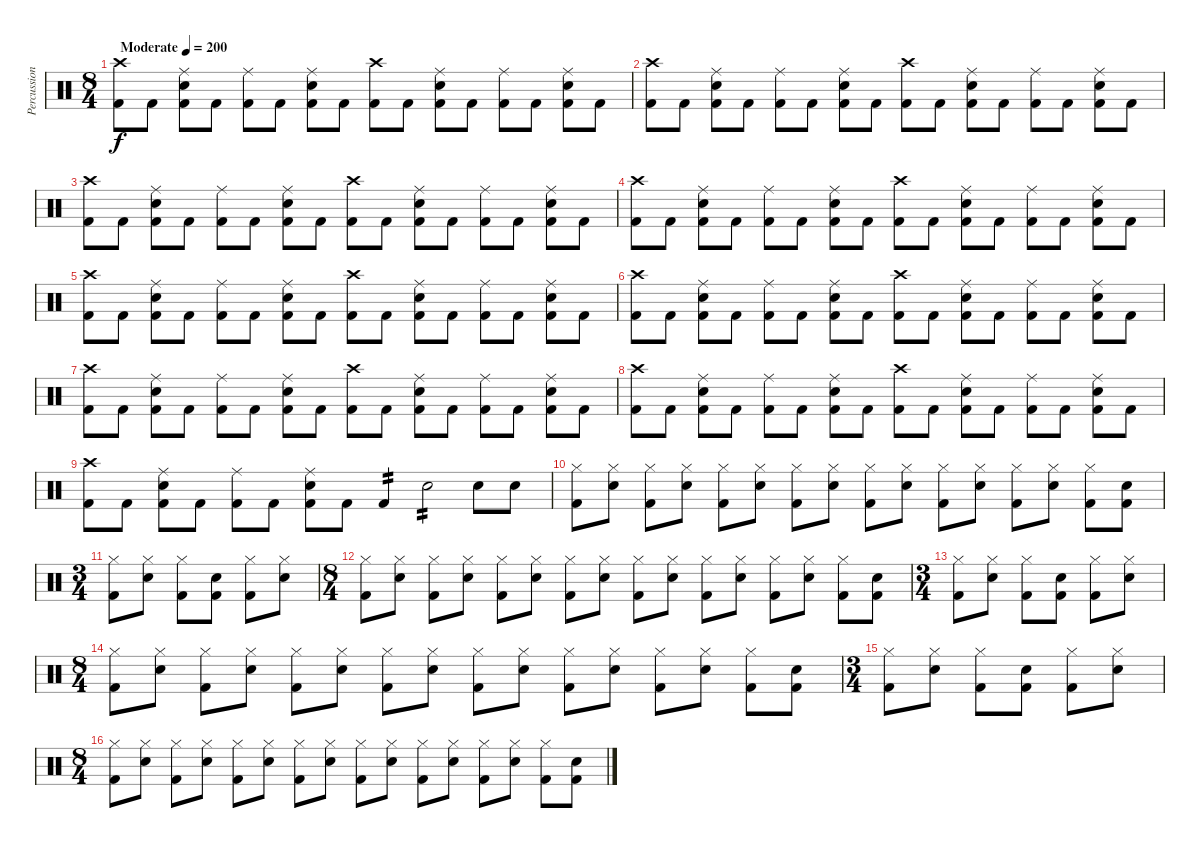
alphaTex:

\track ("Percussion" "Percussion") {instrument percussion}
\staff {score}
\articulation defaults
\ts (8 4)
\tempo (200 "Moderate")
\clef neutral
\ks c
("Kick (hit) 2" "Crash high (hit)").8{dy f} "Kick (hit) 2".8 ("Kick (hit) 2" "Electric Snare (hit)" "Ride (middle)").8 "Kick (hit) 2".8 ("Kick (hit) 2" "Ride (middle)").8 "Kick (hit) 2".8 ("Kick (hit) 2" "Electric Snare (hit)" "Ride (middle)").8 "Kick (hit) 2".8 ("Kick (hit) 2" "Crash high (hit)").8 "Kick (hit) 2".8 ("Kick (hit) 2" "Electric Snare (hit)" "Ride (middle)").8 "Kick (hit) 2".8 ("Kick (hit) 2" "Ride (middle)").8 "Kick (hit) 2".8 ("Kick (hit) 2" "Electric Snare (hit)" "Ride (middle)").8 "Kick (hit) 2".8 |
("Kick (hit) 2" "Crash high (hit)").8 "Kick (hit) 2".8 ("Kick (hit) 2" "Electric Snare (hit)" "Ride (middle)").8 "Kick (hit) 2".8 ("Kick (hit) 2" "Ride (middle)").8 "Kick (hit) 2".8 ("Kick (hit) 2" "Electric Snare (hit)" "Ride (middle)").8 "Kick (hit) 2".8 ("Kick (hit) 2" "Crash high (hit)").8 "Kick (hit) 2".8 ("Kick (hit) 2" "Electric Snare (hit)" "Ride (middle)").8 "Kick (hit) 2".8 ("Kick (hit) 2" "Ride (middle)").8 "Kick (hit) 2".8 ("Kick (hit) 2" "Electric Snare (hit)" "Ride (middle)").8 "Kick (hit) 2".8 |
("Kick (hit) 2" "Crash high (hit)").8 "Kick (hit) 2".8 ("Kick (hit) 2" "Electric Snare (hit)" "Ride (middle)").8 "Kick (hit) 2".8 ("Kick (hit) 2" "Ride (middle)").8 "Kick (hit) 2".8 ("Kick (hit) 2" "Electric Snare (hit)" "Ride (middle)").8 "Kick (hit) 2".8 ("Kick (hit) 2" "Crash high (hit)").8 "Kick (hit) 2".8 ("Kick (hit) 2" "Electric Snare (hit)" "Ride (middle)").8 "Kick (hit) 2".8 ("Kick (hit) 2" "Ride (middle)").8 "Kick (hit) 2".8 ("Kick (hit) 2" "Electric Snare (hit)" "Ride (middle)").8 "Kick (hit) 2".8 |
("Kick (hit) 2" "Crash high (hit)").8 "Kick (hit) 2".8 ("Kick (hit) 2" "Electric Snare (hit)" "Ride (middle)").8 "Kick (hit) 2".8 ("Kick (hit) 2" "Ride (middle)").8 "Kick (hit) 2".8 ("Kick (hit) 2" "Electric Snare (hit)" "Ride (middle)").8 "Kick (hit) 2".8 ("Kick (hit) 2" "Crash high (hit)").8 "Kick (hit) 2".8 ("Kick (hit) 2" "Electric Snare (hit)" "Ride (middle)").8 "Kick (hit) 2".8 ("Kick (hit) 2" "Ride (middle)").8 "Kick (hit) 2".8 ("Kick (hit) 2" "Electric Snare (hit)" "Ride (middle)").8 "Kick (hit) 2".8 |
("Kick (hit) 2" "Crash high (hit)").8 "Kick (hit) 2".8 ("Kick (hit) 2" "Electric Snare (hit)" "Ride (middle)").8 "Kick (hit) 2".8 ("Kick (hit) 2" "Ride (middle)").8 "Kick (hit) 2".8 ("Kick (hit) 2" "Electric Snare (hit)" "Ride (middle)").8 "Kick (hit) 2".8 ("Kick (hit) 2" "Crash high (hit)").8 "Kick (hit) 2".8 ("Kick (hit) 2" "Electric Snare (hit)" "Ride (middle)").8 "Kick (hit) 2".8 ("Kick (hit) 2" "Ride (middle)").8 "Kick (hit) 2".8 ("Kick (hit) 2" "Electric Snare (hit)" "Ride (middle)").8 "Kick (hit) 2".8 |
("Kick (hit) 2" "Crash high (hit)").8 "Kick (hit) 2".8 ("Kick (hit) 2" "Electric Snare (hit)" "Ride (middle)").8 "Kick (hit) 2".8 ("Kick (hit) 2" "Ride (middle)").8 "Kick (hit) 2".8 ("Kick (hit) 2" "Electric Snare (hit)" "Ride (middle)").8 "Kick (hit) 2".8 ("Kick (hit) 2" "Crash high (hit)").8 "Kick (hit) 2".8 ("Kick (hit) 2" "Electric Snare (hit)" "Ride (middle)").8 "Kick (hit) 2".8 ("Kick (hit) 2" "Ride (middle)").8 "Kick (hit) 2".8 ("Kick (hit) 2" "Electric Snare (hit)" "Ride (middle)").8 "Kick (hit) 2".8 |
("Kick (hit) 2" "Crash high (hit)").8 "Kick (hit) 2".8 ("Kick (hit) 2" "Electric Snare (hit)" "Ride (middle)").8 "Kick (hit) 2".8 ("Kick (hit) 2" "Ride (middle)").8 "Kick (hit) 2".8 ("Kick (hit) 2" "Electric Snare (hit)" "Ride (middle)").8 "Kick (hit) 2".8 ("Kick (hit) 2" "Crash high (hit)").8 "Kick (hit) 2".8 ("Kick (hit) 2" "Electric Snare (hit)" "Ride (middle)").8 "Kick (hit) 2".8 ("Kick (hit) 2" "Ride (middle)").8 "Kick (hit) 2".8 ("Kick (hit) 2" "Electric Snare (hit)" "Ride (middle)").8 "Kick (hit) 2".8 |
("Kick (hit) 2" "Crash high (hit)").8 "Kick (hit) 2".8 ("Kick (hit) 2" "Electric Snare (hit)" "Ride (middle)").8 "Kick (hit) 2".8 ("Kick (hit) 2" "Ride (middle)").8 "Kick (hit) 2".8 ("Kick (hit) 2" "Electric Snare (hit)" "Ride (middle)").8 "Kick (hit) 2".8 ("Kick (hit) 2" "Crash high (hit)").8 "Kick (hit) 2".8 ("Kick (hit) 2" "Electric Snare (hit)" "Ride (middle)").8 "Kick (hit) 2".8 ("Kick (hit) 2" "Ride (middle)").8 "Kick (hit) 2".8 ("Kick (hit) 2" "Electric Snare (hit)" "Ride (middle)").8 "Kick (hit) 2".8 |
("Kick (hit) 2" "Crash high (hit)").8 "Kick (hit) 2".8 ("Kick (hit) 2" "Electric Snare (hit)" "Ride (middle)").8 "Kick (hit) 2".8 ("Kick (hit) 2" "Ride (middle)").8 "Kick (hit) 2".8 ("Kick (hit) 2" "Electric Snare (hit)" "Ride (middle)").8 "Kick (hit) 2".8 "Kick (hit) 2".4{tp 2} "Electric Snare (hit)".2{tp 2} "Electric Snare (hit)".8 "Electric Snare (hit)".8 |
("Kick (hit) 2" "Hi-Hat (closed)").8 ("Electric Snare (hit)" "Hi-Hat (closed)").8 ("Kick (hit) 2" "Hi-Hat (closed)").8 ("Electric Snare (hit)" "Hi-Hat (closed)").8 ("Kick (hit) 2" "Hi-Hat (closed)").8 ("Electric Snare (hit)" "Hi-Hat (closed)").8 ("Kick (hit) 2" "Hi-Hat (closed)").8 ("Electric Snare (hit)" "Hi-Hat (closed)").8 ("Kick (hit) 2" "Hi-Hat (closed)").8 ("Electric Snare (hit)" "Hi-Hat (closed)").8 ("Kick (hit) 2" "Hi-Hat (closed)").8 ("Electric Snare (hit)" "Hi-Hat (closed)").8 ("Kick (hit) 2" "Hi-Hat (closed)").8 ("Electric Snare (hit)" "Hi-Hat (closed)").8 ("Kick (hit) 2" "Hi-Hat (closed)").8 ("Electric Snare (hit)" "Kick (hit) 2").8 |
\ts (3 4)
("Kick (hit) 2" "Hi-Hat (closed)").8 ("Electric Snare (hit)" "Hi-Hat (closed)").8 ("Kick (hit) 2" "Hi-Hat (closed)").8 ("Electric Snare (hit)" "Kick (hit) 2").8 ("Kick (hit) 2" "Hi-Hat (closed)").8 ("Electric Snare (hit)" "Hi-Hat (closed)").8 |
\ts (8 4)
("Kick (hit) 2" "Hi-Hat (closed)").8 ("Electric Snare (hit)" "Hi-Hat (closed)").8 ("Kick (hit) 2" "Hi-Hat (closed)").8 ("Electric Snare (hit)" "Hi-Hat (closed)").8 ("Kick (hit) 2" "Hi-Hat (closed)").8 ("Electric Snare (hit)" "Hi-Hat (closed)").8 ("Kick (hit) 2" "Hi-Hat (closed)").8 ("Electric Snare (hit)" "Hi-Hat (closed)").8 ("Kick (hit) 2" "Hi-Hat (closed)").8 ("Electric Snare (hit)" "Hi-Hat (closed)").8 ("Kick (hit) 2" "Hi-Hat (closed)").8 ("Electric Snare (hit)" "Hi-Hat (closed)").8 ("Kick (hit) 2" "Hi-Hat (closed)").8 ("Electric Snare (hit)" "Hi-Hat (closed)").8 ("Kick (hit) 2" "Hi-Hat (closed)").8 ("Electric Snare (hit)" "Kick (hit) 2").8 |
\ts (3 4)
("Kick (hit) 2" "Hi-Hat (closed)").8 ("Electric Snare (hit)" "Hi-Hat (closed)").8 ("Kick (hit) 2" "Hi-Hat (closed)").8 ("Electric Snare (hit)" "Kick (hit) 2").8 ("Kick (hit) 2" "Hi-Hat (closed)").8 ("Electric Snare (hit)" "Hi-Hat (closed)").8 |
\ts (8 4)
("Kick (hit) 2" "Hi-Hat (closed)").8 ("Electric Snare (hit)" "Hi-Hat (closed)").8 ("Kick (hit) 2" "Hi-Hat (closed)").8 ("Electric Snare (hit)" "Hi-Hat (closed)").8 ("Kick (hit) 2" "Hi-Hat (closed)").8 ("Electric Snare (hit)" "Hi-Hat (closed)").8 ("Kick (hit) 2" "Hi-Hat (closed)").8 ("Electric Snare (hit)" "Hi-Hat (closed)").8 ("Kick (hit) 2" "Hi-Hat (closed)").8 ("Electric Snare (hit)" "Hi-Hat (closed)").8 ("Kick (hit) 2" "Hi-Hat (closed)").8 ("Electric Snare (hit)" "Hi-Hat (closed)").8 ("Kick (hit) 2" "Hi-Hat (closed)").8 ("Electric Snare (hit)" "Hi-Hat (closed)").8 ("Kick (hit) 2" "Hi-Hat (closed)").8 ("Electric Snare (hit)" "Kick (hit) 2").8 |
\ts (3 4)
("Kick (hit) 2" "Hi-Hat (closed)").8 ("Electric Snare (hit)" "Hi-Hat (closed)").8 ("Kick (hit) 2" "Hi-Hat (closed)").8 ("Electric Snare (hit)" "Kick (hit) 2").8 ("Kick (hit) 2" "Hi-Hat (closed)").8 ("Electric Snare (hit)" "Hi-Hat (closed)").8 |
\ts (8 4)
("Kick (hit) 2" "Hi-Hat (closed)").8 ("Electric Snare (hit)" "Hi-Hat (closed)").8 ("Kick (hit) 2" "Hi-Hat (closed)").8 ("Electric Snare (hit)" "Hi-Hat (closed)").8 ("Kick (hit) 2" "Hi-Hat (closed)").8 ("Electric Snare (hit)" "Hi-Hat (closed)").8 ("Kick (hit) 2" "Hi-Hat (closed)").8 ("Electric Snare (hit)" "Hi-Hat (closed)").8 ("Kick (hit) 2" "Hi-Hat (closed)").8 ("Electric Snare (hit)" "Hi-Hat (closed)").8 ("Kick (hit) 2" "Hi-Hat (closed)").8 ("Electric Snare (hit)" "Hi-Hat (closed)").8 ("Kick (hit) 2" "Hi-Hat (closed)").8 ("Electric Snare (hit)" "Hi-Hat (closed)").8 ("Kick (hit) 2" "Hi-Hat (closed)").8 ("Electric Snare (hit)" "Kick (hit) 2").8
